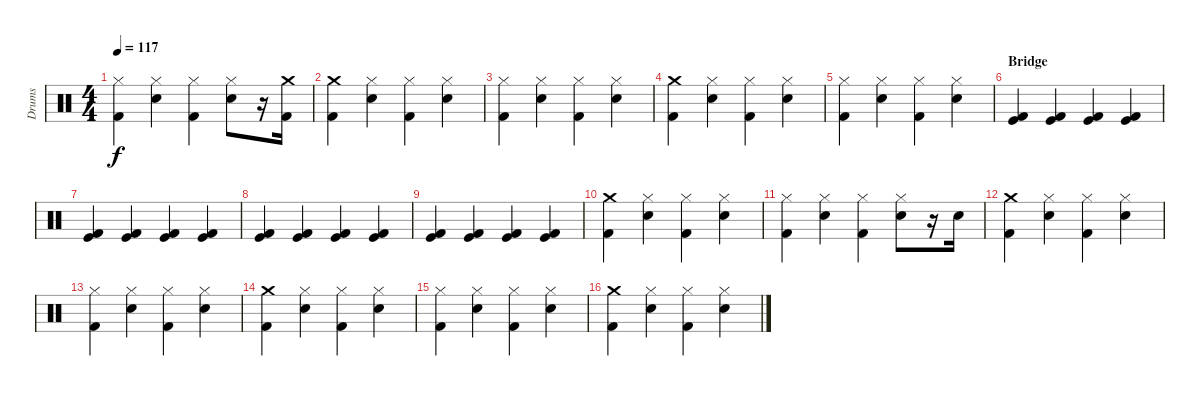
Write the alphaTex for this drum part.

\track ("Drums" "Drums") {instrument percussion}
\staff {score}
\articulation defaults
\ts (4 4)
\tempo 117
\clef neutral
\ks c
("Hi-Hat (closed)" "Kick (hit) 2").4{dy f} ("Hi-Hat (closed)" "Snare (hit) 2").4 ("Hi-Hat (closed)" "Kick (hit) 2").4 ("Hi-Hat (closed)" "Snare (hit) 2").8 r.16 ("Crash medium (hit)" "Kick (hit) 2").16 |
("Crash medium (hit)" "Kick (hit) 2").4 ("Hi-Hat (closed)" "Snare (hit) 2").4 ("Hi-Hat (closed)" "Kick (hit) 2").4 ("Hi-Hat (closed)" "Snare (hit) 2").4 |
("Hi-Hat (closed)" "Kick (hit) 2").4 ("Hi-Hat (closed)" "Snare (hit) 2").4 ("Hi-Hat (closed)" "Kick (hit) 2").4 ("Hi-Hat (closed)" "Snare (hit) 2").4 |
("Crash medium (hit)" "Kick (hit) 2").4 ("Hi-Hat (closed)" "Snare (hit) 2").4 ("Hi-Hat (closed)" "Kick (hit) 2").4 ("Hi-Hat (closed)" "Snare (hit) 2").4 |
("Hi-Hat (closed)" "Kick (hit) 2").4 ("Hi-Hat (closed)" "Snare (hit) 2").4 ("Hi-Hat (closed)" "Kick (hit) 2").4 ("Hi-Hat (closed)" "Snare (hit) 2").4 |
\section ("" "Bridge")
("Kick (hit) 2" "Kick (hit)").4 ("Kick (hit) 2" "Kick (hit)").4 ("Kick (hit) 2" "Kick (hit)").4 ("Kick (hit) 2" "Kick (hit)").4 |
("Kick (hit) 2" "Kick (hit)").4 ("Kick (hit) 2" "Kick (hit)").4 ("Kick (hit) 2" "Kick (hit)").4 ("Kick (hit) 2" "Kick (hit)").4 |
("Kick (hit) 2" "Kick (hit)").4 ("Kick (hit) 2" "Kick (hit)").4 ("Kick (hit) 2" "Kick (hit)").4 ("Kick (hit) 2" "Kick (hit)").4 |
("Kick (hit) 2" "Kick (hit)").4 ("Kick (hit) 2" "Kick (hit)").4 ("Kick (hit) 2" "Kick (hit)").4 ("Kick (hit) 2" "Kick (hit)").4 |
("Crash medium (hit)" "Kick (hit) 2").4 ("Hi-Hat (closed)" "Snare (hit) 2").4 ("Hi-Hat (closed)" "Kick (hit) 2").4 ("Hi-Hat (closed)" "Snare (hit) 2").4 |
("Hi-Hat (closed)" "Kick (hit) 2").4 ("Hi-Hat (closed)" "Snare (hit) 2").4 ("Hi-Hat (closed)" "Kick (hit) 2").4 ("Hi-Hat (closed)" "Snare (hit) 2").8 r.16 "Snare (hit) 2".16 |
("Crash medium (hit)" "Kick (hit) 2").4 ("Hi-Hat (closed)" "Snare (hit) 2").4 ("Hi-Hat (closed)" "Kick (hit) 2").4 ("Hi-Hat (closed)" "Snare (hit) 2").4 |
("Hi-Hat (closed)" "Kick (hit) 2").4 ("Hi-Hat (closed)" "Snare (hit) 2").4 ("Hi-Hat (closed)" "Kick (hit) 2").4 ("Hi-Hat (closed)" "Snare (hit) 2").4 |
("Crash medium (hit)" "Kick (hit) 2").4 ("Hi-Hat (closed)" "Snare (hit) 2").4 ("Hi-Hat (closed)" "Kick (hit) 2").4 ("Hi-Hat (closed)" "Snare (hit) 2").4 |
("Hi-Hat (closed)" "Kick (hit) 2").4 ("Hi-Hat (closed)" "Snare (hit) 2").4 ("Hi-Hat (closed)" "Kick (hit) 2").4 ("Hi-Hat (closed)" "Snare (hit) 2").4 |
("Crash medium (hit)" "Kick (hit) 2").4 ("Hi-Hat (closed)" "Snare (hit) 2").4 ("Hi-Hat (closed)" "Kick (hit) 2").4 ("Hi-Hat (closed)" "Snare (hit) 2").4
